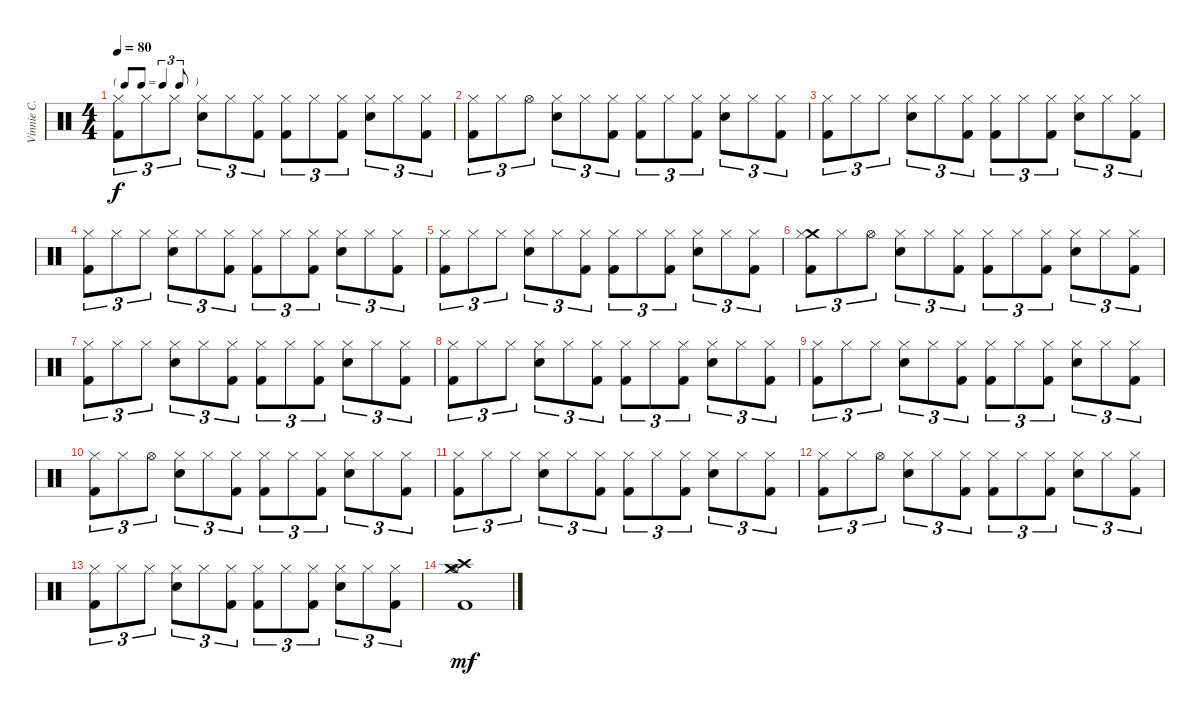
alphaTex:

\track ("Vinnie C." "Vinnie C.") {instrument percussion}
\staff {score}
\articulation defaults
\ts (4 4)
\tf triplet8th
\tempo 80
\clef neutral
\ks c
("Hi-Hat (closed)" "Kick (hit) 2").8{tu (3 2) dy f} "Hi-Hat (closed)".8{tu (3 2)} "Hi-Hat (closed)".8{tu (3 2)} ("Hi-Hat (closed)" "Electric Snare (hit)").8{tu (3 2)} "Hi-Hat (closed)".8{tu (3 2)} ("Hi-Hat (closed)" "Kick (hit) 2").8{tu (3 2)} ("Hi-Hat (closed)" "Kick (hit) 2").8{tu (3 2)} "Hi-Hat (closed)".8{tu (3 2)} ("Hi-Hat (closed)" "Kick (hit) 2").8{tu (3 2)} ("Hi-Hat (closed)" "Electric Snare (hit)").8{tu (3 2) beam merge} "Hi-Hat (closed)".8{tu (3 2) beam merge} ("Hi-Hat (closed)" "Kick (hit) 2").8{tu (3 2)} |
("Hi-Hat (closed)" "Kick (hit) 2").8{tu (3 2)} "Hi-Hat (closed)".8{tu (3 2)} "Hi-Hat (open)".8{tu (3 2)} ("Hi-Hat (closed)" "Electric Snare (hit)").8{tu (3 2)} "Hi-Hat (closed)".8{tu (3 2)} ("Hi-Hat (closed)" "Kick (hit) 2").8{tu (3 2)} ("Hi-Hat (closed)" "Kick (hit) 2").8{tu (3 2)} "Hi-Hat (closed)".8{tu (3 2)} ("Hi-Hat (closed)" "Kick (hit) 2").8{tu (3 2)} ("Hi-Hat (closed)" "Electric Snare (hit)").8{tu (3 2) beam merge} "Hi-Hat (closed)".8{tu (3 2) beam merge} ("Hi-Hat (closed)" "Kick (hit) 2").8{tu (3 2)} |
("Hi-Hat (closed)" "Kick (hit) 2").8{tu (3 2)} "Hi-Hat (closed)".8{tu (3 2)} "Hi-Hat (closed)".8{tu (3 2)} ("Hi-Hat (closed)" "Electric Snare (hit)").8{tu (3 2)} "Hi-Hat (closed)".8{tu (3 2)} ("Hi-Hat (closed)" "Kick (hit) 2").8{tu (3 2)} ("Hi-Hat (closed)" "Kick (hit) 2").8{tu (3 2)} "Hi-Hat (closed)".8{tu (3 2)} ("Hi-Hat (closed)" "Kick (hit) 2").8{tu (3 2)} ("Hi-Hat (closed)" "Electric Snare (hit)").8{tu (3 2) beam merge} "Hi-Hat (closed)".8{tu (3 2) beam merge} ("Hi-Hat (closed)" "Kick (hit) 2").8{tu (3 2)} |
("Hi-Hat (closed)" "Kick (hit) 2").8{tu (3 2)} "Hi-Hat (closed)".8{tu (3 2)} "Hi-Hat (closed)".8{tu (3 2)} ("Hi-Hat (closed)" "Electric Snare (hit)").8{tu (3 2)} "Hi-Hat (closed)".8{tu (3 2)} ("Hi-Hat (closed)" "Kick (hit) 2").8{tu (3 2)} ("Hi-Hat (closed)" "Kick (hit) 2").8{tu (3 2)} "Hi-Hat (closed)".8{tu (3 2)} ("Hi-Hat (closed)" "Kick (hit) 2").8{tu (3 2)} ("Hi-Hat (closed)" "Electric Snare (hit)").8{tu (3 2) beam merge} "Hi-Hat (closed)".8{tu (3 2) beam merge} ("Hi-Hat (closed)" "Kick (hit) 2").8{tu (3 2)} |
("Hi-Hat (closed)" "Kick (hit) 2").8{tu (3 2)} "Hi-Hat (closed)".8{tu (3 2)} "Hi-Hat (closed)".8{tu (3 2)} ("Hi-Hat (closed)" "Electric Snare (hit)").8{tu (3 2)} "Hi-Hat (closed)".8{tu (3 2)} ("Hi-Hat (closed)" "Kick (hit) 2").8{tu (3 2)} ("Hi-Hat (closed)" "Kick (hit) 2").8{tu (3 2)} "Hi-Hat (closed)".8{tu (3 2)} ("Hi-Hat (closed)" "Kick (hit) 2").8{tu (3 2)} ("Hi-Hat (closed)" "Electric Snare (hit)").8{tu (3 2) beam merge} "Hi-Hat (closed)".8{tu (3 2) beam merge} ("Hi-Hat (closed)" "Kick (hit) 2").8{tu (3 2)} |
("Crash medium (hit)" "Hi-Hat (closed)" "Kick (hit) 2").8{tu (3 2)} "Hi-Hat (closed)".8{tu (3 2)} "Hi-Hat (open)".8{tu (3 2)} ("Hi-Hat (closed)" "Electric Snare (hit)").8{tu (3 2)} "Hi-Hat (closed)".8{tu (3 2)} ("Hi-Hat (closed)" "Kick (hit) 2").8{tu (3 2)} ("Hi-Hat (closed)" "Kick (hit) 2").8{tu (3 2)} "Hi-Hat (closed)".8{tu (3 2)} ("Hi-Hat (closed)" "Kick (hit) 2").8{tu (3 2)} ("Hi-Hat (closed)" "Electric Snare (hit)").8{tu (3 2) beam merge} "Hi-Hat (closed)".8{tu (3 2) beam merge} ("Hi-Hat (closed)" "Kick (hit) 2").8{tu (3 2)} |
("Hi-Hat (closed)" "Kick (hit) 2").8{tu (3 2)} "Hi-Hat (closed)".8{tu (3 2)} "Hi-Hat (closed)".8{tu (3 2)} ("Hi-Hat (closed)" "Electric Snare (hit)").8{tu (3 2)} "Hi-Hat (closed)".8{tu (3 2)} ("Hi-Hat (closed)" "Kick (hit) 2").8{tu (3 2)} ("Hi-Hat (closed)" "Kick (hit) 2").8{tu (3 2)} "Hi-Hat (closed)".8{tu (3 2)} ("Hi-Hat (closed)" "Kick (hit) 2").8{tu (3 2)} ("Hi-Hat (closed)" "Electric Snare (hit)").8{tu (3 2) beam merge} "Hi-Hat (closed)".8{tu (3 2) beam merge} ("Hi-Hat (closed)" "Kick (hit) 2").8{tu (3 2)} |
("Hi-Hat (closed)" "Kick (hit) 2").8{tu (3 2)} "Hi-Hat (closed)".8{tu (3 2)} "Hi-Hat (closed)".8{tu (3 2)} ("Hi-Hat (closed)" "Electric Snare (hit)").8{tu (3 2)} "Hi-Hat (closed)".8{tu (3 2)} ("Hi-Hat (closed)" "Kick (hit) 2").8{tu (3 2)} ("Hi-Hat (closed)" "Kick (hit) 2").8{tu (3 2)} "Hi-Hat (closed)".8{tu (3 2)} ("Hi-Hat (closed)" "Kick (hit) 2").8{tu (3 2)} ("Hi-Hat (closed)" "Electric Snare (hit)").8{tu (3 2) beam merge} "Hi-Hat (closed)".8{tu (3 2) beam merge} ("Hi-Hat (closed)" "Kick (hit) 2").8{tu (3 2)} |
("Hi-Hat (closed)" "Kick (hit) 2").8{tu (3 2)} "Hi-Hat (closed)".8{tu (3 2)} "Hi-Hat (closed)".8{tu (3 2)} ("Hi-Hat (closed)" "Electric Snare (hit)").8{tu (3 2)} "Hi-Hat (closed)".8{tu (3 2)} ("Hi-Hat (closed)" "Kick (hit) 2").8{tu (3 2)} ("Hi-Hat (closed)" "Kick (hit) 2").8{tu (3 2)} "Hi-Hat (closed)".8{tu (3 2)} ("Hi-Hat (closed)" "Kick (hit) 2").8{tu (3 2)} ("Hi-Hat (closed)" "Electric Snare (hit)").8{tu (3 2) beam merge} "Hi-Hat (closed)".8{tu (3 2) beam merge} ("Hi-Hat (closed)" "Kick (hit) 2").8{tu (3 2)} |
("Hi-Hat (closed)" "Kick (hit) 2").8{tu (3 2)} "Hi-Hat (closed)".8{tu (3 2)} "Hi-Hat (open)".8{tu (3 2)} ("Hi-Hat (closed)" "Electric Snare (hit)").8{tu (3 2)} "Hi-Hat (closed)".8{tu (3 2)} ("Hi-Hat (closed)" "Kick (hit) 2").8{tu (3 2)} ("Hi-Hat (closed)" "Kick (hit) 2").8{tu (3 2)} "Hi-Hat (closed)".8{tu (3 2)} ("Hi-Hat (closed)" "Kick (hit) 2").8{tu (3 2)} ("Hi-Hat (closed)" "Electric Snare (hit)").8{tu (3 2) beam merge} "Hi-Hat (closed)".8{tu (3 2) beam merge} ("Hi-Hat (closed)" "Kick (hit) 2").8{tu (3 2)} |
("Hi-Hat (closed)" "Kick (hit) 2").8{tu (3 2)} "Hi-Hat (closed)".8{tu (3 2)} "Hi-Hat (closed)".8{tu (3 2)} ("Hi-Hat (closed)" "Electric Snare (hit)").8{tu (3 2)} "Hi-Hat (closed)".8{tu (3 2)} ("Hi-Hat (closed)" "Kick (hit) 2").8{tu (3 2)} ("Hi-Hat (closed)" "Kick (hit) 2").8{tu (3 2)} "Hi-Hat (closed)".8{tu (3 2)} ("Hi-Hat (closed)" "Kick (hit) 2").8{tu (3 2)} ("Hi-Hat (closed)" "Electric Snare (hit)").8{tu (3 2) beam merge} "Hi-Hat (closed)".8{tu (3 2) beam merge} ("Hi-Hat (closed)" "Kick (hit) 2").8{tu (3 2)} |
("Hi-Hat (closed)" "Kick (hit) 2").8{tu (3 2)} "Hi-Hat (closed)".8{tu (3 2)} "Hi-Hat (open)".8{tu (3 2)} ("Hi-Hat (closed)" "Electric Snare (hit)").8{tu (3 2)} "Hi-Hat (closed)".8{tu (3 2)} ("Hi-Hat (closed)" "Kick (hit) 2").8{tu (3 2)} ("Hi-Hat (closed)" "Kick (hit) 2").8{tu (3 2)} "Hi-Hat (closed)".8{tu (3 2)} ("Hi-Hat (closed)" "Kick (hit) 2").8{tu (3 2)} ("Hi-Hat (closed)" "Electric Snare (hit)").8{tu (3 2) beam merge} "Hi-Hat (closed)".8{tu (3 2) beam merge} ("Hi-Hat (closed)" "Kick (hit) 2").8{tu (3 2)} |
("Hi-Hat (closed)" "Kick (hit) 2").8{tu (3 2)} "Hi-Hat (closed)".8{tu (3 2)} "Hi-Hat (closed)".8{tu (3 2)} ("Hi-Hat (closed)" "Electric Snare (hit)").8{tu (3 2)} "Hi-Hat (closed)".8{tu (3 2)} ("Hi-Hat (closed)" "Kick (hit) 2").8{tu (3 2)} ("Hi-Hat (closed)" "Kick (hit) 2").8{tu (3 2)} "Hi-Hat (closed)".8{tu (3 2)} ("Hi-Hat (closed)" "Kick (hit) 2").8{tu (3 2)} ("Hi-Hat (closed)" "Electric Snare (hit)").8{tu (3 2) beam merge} "Hi-Hat (closed)".8{tu (3 2) beam merge} ("Hi-Hat (closed)" "Kick (hit) 2").8{tu (3 2)} |
("Crash medium (hit)" "Crash high (hit)" "Hi-Hat (open)" "Kick (hit) 2").1{dy mf}
